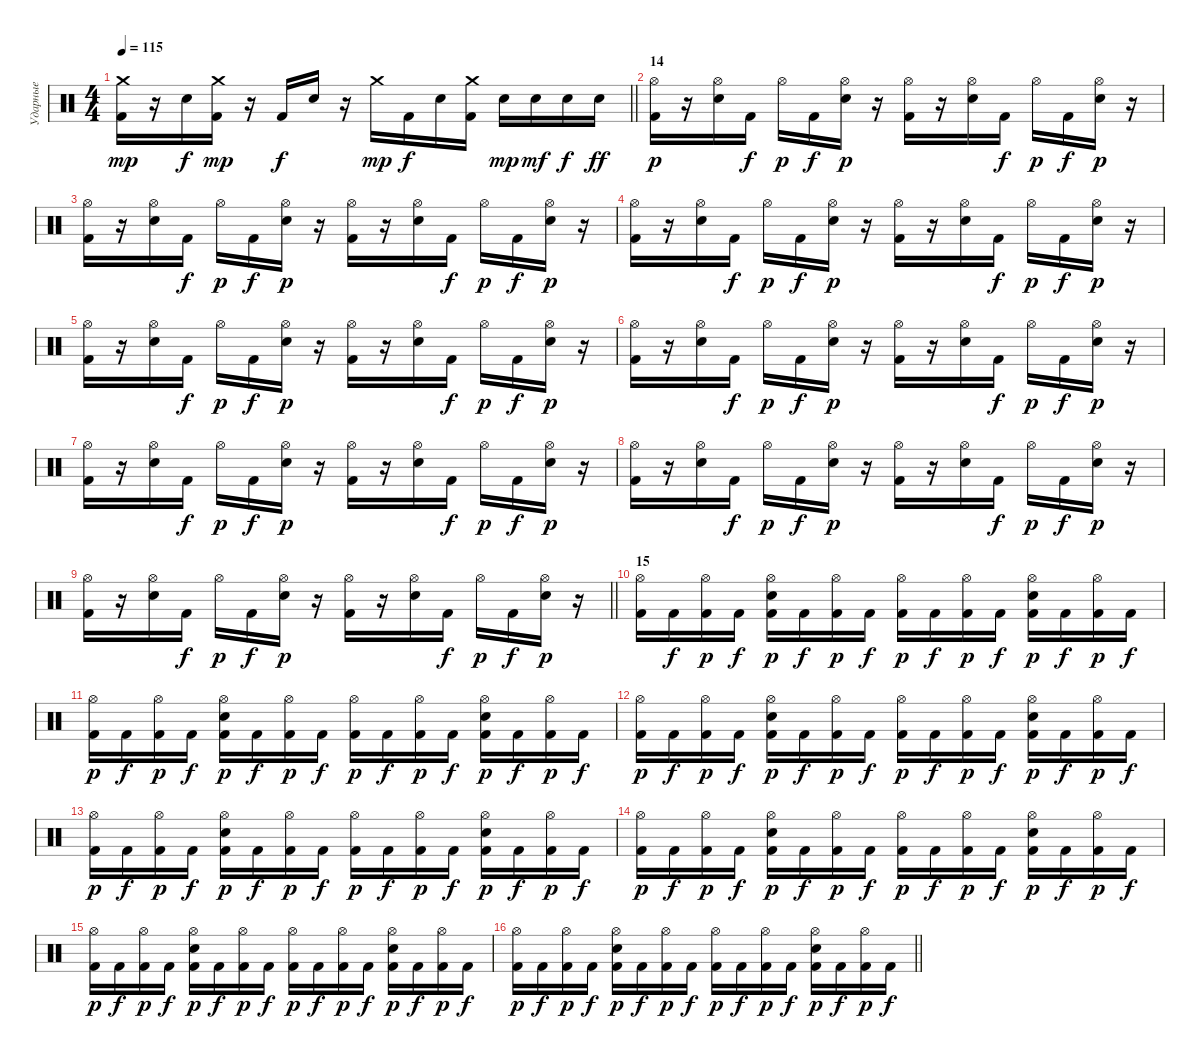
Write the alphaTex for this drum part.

\track ("Ударные" "Ударные") {instrument percussion}
\staff {score}
\articulation defaults
\ts (4 4)
\tempo 115
\clef neutral
\barLineRight lightlight
\ks c
("Crash medium (hit)" "Kick (hit) 2").16{dy mp} r.16 "Snare (hit) 2".16{dy f} ("Crash medium (hit)" "Kick (hit) 2").16{dy mp} r.16 "Kick (hit) 2".16{dy f} "Snare (hit) 2".16 r.16 "Crash medium (hit)".16{dy mp} "Kick (hit) 2".16{dy f} "Snare (hit) 2".16 ("Crash medium (hit)" "Kick (hit) 2").16 "Snare (hit) 2".16{dy mp} "Snare (hit) 2".16{dy mf} "Snare (hit) 2".16{dy f} "Snare (hit) 2".16{dy ff} |
\section ("" "14")
("Hi-Hat (open)" "Kick (hit) 2").16{dy p} r.16 ("Hi-Hat (open)" "Snare (hit) 2").16 "Kick (hit) 2".16{dy f} "Hi-Hat (open)".16{dy p} "Kick (hit) 2".16{dy f} ("Hi-Hat (open)" "Snare (hit) 2").16{dy p} r.16 ("Hi-Hat (open)" "Kick (hit) 2").16 r.16 ("Hi-Hat (open)" "Snare (hit) 2").16 "Kick (hit) 2".16{dy f} "Hi-Hat (open)".16{dy p} "Kick (hit) 2".16{dy f} ("Hi-Hat (open)" "Snare (hit) 2").16{dy p} r.16 |
("Hi-Hat (open)" "Kick (hit) 2").16 r.16 ("Hi-Hat (open)" "Snare (hit) 2").16 "Kick (hit) 2".16{dy f} "Hi-Hat (open)".16{dy p} "Kick (hit) 2".16{dy f} ("Hi-Hat (open)" "Snare (hit) 2").16{dy p} r.16 ("Hi-Hat (open)" "Kick (hit) 2").16 r.16 ("Hi-Hat (open)" "Snare (hit) 2").16 "Kick (hit) 2".16{dy f} "Hi-Hat (open)".16{dy p} "Kick (hit) 2".16{dy f} ("Hi-Hat (open)" "Snare (hit) 2").16{dy p} r.16 |
("Hi-Hat (open)" "Kick (hit) 2").16 r.16 ("Hi-Hat (open)" "Snare (hit) 2").16 "Kick (hit) 2".16{dy f} "Hi-Hat (open)".16{dy p} "Kick (hit) 2".16{dy f} ("Hi-Hat (open)" "Snare (hit) 2").16{dy p} r.16 ("Hi-Hat (open)" "Kick (hit) 2").16 r.16 ("Hi-Hat (open)" "Snare (hit) 2").16 "Kick (hit) 2".16{dy f} "Hi-Hat (open)".16{dy p} "Kick (hit) 2".16{dy f} ("Hi-Hat (open)" "Snare (hit) 2").16{dy p} r.16 |
("Hi-Hat (open)" "Kick (hit) 2").16 r.16 ("Hi-Hat (open)" "Snare (hit) 2").16 "Kick (hit) 2".16{dy f} "Hi-Hat (open)".16{dy p} "Kick (hit) 2".16{dy f} ("Hi-Hat (open)" "Snare (hit) 2").16{dy p} r.16 ("Hi-Hat (open)" "Kick (hit) 2").16 r.16 ("Hi-Hat (open)" "Snare (hit) 2").16 "Kick (hit) 2".16{dy f} "Hi-Hat (open)".16{dy p} "Kick (hit) 2".16{dy f} ("Hi-Hat (open)" "Snare (hit) 2").16{dy p} r.16 |
("Hi-Hat (open)" "Kick (hit) 2").16 r.16 ("Hi-Hat (open)" "Snare (hit) 2").16 "Kick (hit) 2".16{dy f} "Hi-Hat (open)".16{dy p} "Kick (hit) 2".16{dy f} ("Hi-Hat (open)" "Snare (hit) 2").16{dy p} r.16 ("Hi-Hat (open)" "Kick (hit) 2").16 r.16 ("Hi-Hat (open)" "Snare (hit) 2").16 "Kick (hit) 2".16{dy f} "Hi-Hat (open)".16{dy p} "Kick (hit) 2".16{dy f} ("Hi-Hat (open)" "Snare (hit) 2").16{dy p} r.16 |
("Hi-Hat (open)" "Kick (hit) 2").16 r.16 ("Hi-Hat (open)" "Snare (hit) 2").16 "Kick (hit) 2".16{dy f} "Hi-Hat (open)".16{dy p} "Kick (hit) 2".16{dy f} ("Hi-Hat (open)" "Snare (hit) 2").16{dy p} r.16 ("Hi-Hat (open)" "Kick (hit) 2").16 r.16 ("Hi-Hat (open)" "Snare (hit) 2").16 "Kick (hit) 2".16{dy f} "Hi-Hat (open)".16{dy p} "Kick (hit) 2".16{dy f} ("Hi-Hat (open)" "Snare (hit) 2").16{dy p} r.16 |
("Hi-Hat (open)" "Kick (hit) 2").16 r.16 ("Hi-Hat (open)" "Snare (hit) 2").16 "Kick (hit) 2".16{dy f} "Hi-Hat (open)".16{dy p} "Kick (hit) 2".16{dy f} ("Hi-Hat (open)" "Snare (hit) 2").16{dy p} r.16 ("Hi-Hat (open)" "Kick (hit) 2").16 r.16 ("Hi-Hat (open)" "Snare (hit) 2").16 "Kick (hit) 2".16{dy f} "Hi-Hat (open)".16{dy p} "Kick (hit) 2".16{dy f} ("Hi-Hat (open)" "Snare (hit) 2").16{dy p} r.16 |
\barLineRight lightlight
("Hi-Hat (open)" "Kick (hit) 2").16 r.16 ("Hi-Hat (open)" "Snare (hit) 2").16 "Kick (hit) 2".16{dy f} "Hi-Hat (open)".16{dy p} "Kick (hit) 2".16{dy f} ("Hi-Hat (open)" "Snare (hit) 2").16{dy p} r.16 ("Hi-Hat (open)" "Kick (hit) 2").16 r.16 ("Hi-Hat (open)" "Snare (hit) 2").16 "Kick (hit) 2".16{dy f} "Hi-Hat (open)".16{dy p} "Kick (hit) 2".16{dy f} ("Hi-Hat (open)" "Snare (hit) 2").16{dy p} r.16 |
\section ("" "15")
("Hi-Hat (open)" "Kick (hit) 2").16 "Kick (hit) 2".16{dy f} ("Hi-Hat (open)" "Kick (hit) 2").16{dy p} "Kick (hit) 2".16{dy f} ("Hi-Hat (open)" "Snare (hit) 2" "Kick (hit) 2").16{dy p} "Kick (hit) 2".16{dy f} ("Hi-Hat (open)" "Kick (hit) 2").16{dy p} "Kick (hit) 2".16{dy f} ("Hi-Hat (open)" "Kick (hit) 2").16{dy p} "Kick (hit) 2".16{dy f} ("Hi-Hat (open)" "Kick (hit) 2").16{dy p} "Kick (hit) 2".16{dy f} ("Hi-Hat (open)" "Snare (hit) 2" "Kick (hit) 2").16{dy p} "Kick (hit) 2".16{dy f} ("Hi-Hat (open)" "Kick (hit) 2").16{dy p} "Kick (hit) 2".16{dy f} |
("Hi-Hat (open)" "Kick (hit) 2").16{dy p} "Kick (hit) 2".16{dy f} ("Hi-Hat (open)" "Kick (hit) 2").16{dy p} "Kick (hit) 2".16{dy f} ("Hi-Hat (open)" "Snare (hit) 2" "Kick (hit) 2").16{dy p} "Kick (hit) 2".16{dy f} ("Hi-Hat (open)" "Kick (hit) 2").16{dy p} "Kick (hit) 2".16{dy f} ("Hi-Hat (open)" "Kick (hit) 2").16{dy p} "Kick (hit) 2".16{dy f} ("Hi-Hat (open)" "Kick (hit) 2").16{dy p} "Kick (hit) 2".16{dy f} ("Hi-Hat (open)" "Snare (hit) 2" "Kick (hit) 2").16{dy p} "Kick (hit) 2".16{dy f} ("Hi-Hat (open)" "Kick (hit) 2").16{dy p} "Kick (hit) 2".16{dy f} |
("Hi-Hat (open)" "Kick (hit) 2").16{dy p} "Kick (hit) 2".16{dy f} ("Hi-Hat (open)" "Kick (hit) 2").16{dy p} "Kick (hit) 2".16{dy f} ("Hi-Hat (open)" "Snare (hit) 2" "Kick (hit) 2").16{dy p} "Kick (hit) 2".16{dy f} ("Hi-Hat (open)" "Kick (hit) 2").16{dy p} "Kick (hit) 2".16{dy f} ("Hi-Hat (open)" "Kick (hit) 2").16{dy p} "Kick (hit) 2".16{dy f} ("Hi-Hat (open)" "Kick (hit) 2").16{dy p} "Kick (hit) 2".16{dy f} ("Hi-Hat (open)" "Snare (hit) 2" "Kick (hit) 2").16{dy p} "Kick (hit) 2".16{dy f} ("Hi-Hat (open)" "Kick (hit) 2").16{dy p} "Kick (hit) 2".16{dy f} |
("Hi-Hat (open)" "Kick (hit) 2").16{dy p} "Kick (hit) 2".16{dy f} ("Hi-Hat (open)" "Kick (hit) 2").16{dy p} "Kick (hit) 2".16{dy f} ("Hi-Hat (open)" "Snare (hit) 2" "Kick (hit) 2").16{dy p} "Kick (hit) 2".16{dy f} ("Hi-Hat (open)" "Kick (hit) 2").16{dy p} "Kick (hit) 2".16{dy f} ("Hi-Hat (open)" "Kick (hit) 2").16{dy p} "Kick (hit) 2".16{dy f} ("Hi-Hat (open)" "Kick (hit) 2").16{dy p} "Kick (hit) 2".16{dy f} ("Hi-Hat (open)" "Snare (hit) 2" "Kick (hit) 2").16{dy p} "Kick (hit) 2".16{dy f} ("Hi-Hat (open)" "Kick (hit) 2").16{dy p} "Kick (hit) 2".16{dy f} |
("Hi-Hat (open)" "Kick (hit) 2").16{dy p} "Kick (hit) 2".16{dy f} ("Hi-Hat (open)" "Kick (hit) 2").16{dy p} "Kick (hit) 2".16{dy f} ("Hi-Hat (open)" "Snare (hit) 2" "Kick (hit) 2").16{dy p} "Kick (hit) 2".16{dy f} ("Hi-Hat (open)" "Kick (hit) 2").16{dy p} "Kick (hit) 2".16{dy f} ("Hi-Hat (open)" "Kick (hit) 2").16{dy p} "Kick (hit) 2".16{dy f} ("Hi-Hat (open)" "Kick (hit) 2").16{dy p} "Kick (hit) 2".16{dy f} ("Hi-Hat (open)" "Snare (hit) 2" "Kick (hit) 2").16{dy p} "Kick (hit) 2".16{dy f} ("Hi-Hat (open)" "Kick (hit) 2").16{dy p} "Kick (hit) 2".16{dy f} |
("Hi-Hat (open)" "Kick (hit) 2").16{dy p} "Kick (hit) 2".16{dy f} ("Hi-Hat (open)" "Kick (hit) 2").16{dy p} "Kick (hit) 2".16{dy f} ("Hi-Hat (open)" "Snare (hit) 2" "Kick (hit) 2").16{dy p} "Kick (hit) 2".16{dy f} ("Hi-Hat (open)" "Kick (hit) 2").16{dy p} "Kick (hit) 2".16{dy f} ("Hi-Hat (open)" "Kick (hit) 2").16{dy p} "Kick (hit) 2".16{dy f} ("Hi-Hat (open)" "Kick (hit) 2").16{dy p} "Kick (hit) 2".16{dy f} ("Hi-Hat (open)" "Snare (hit) 2" "Kick (hit) 2").16{dy p} "Kick (hit) 2".16{dy f} ("Hi-Hat (open)" "Kick (hit) 2").16{dy p} "Kick (hit) 2".16{dy f} |
\barLineRight lightlight
("Hi-Hat (open)" "Kick (hit) 2").16{dy p} "Kick (hit) 2".16{dy f} ("Hi-Hat (open)" "Kick (hit) 2").16{dy p} "Kick (hit) 2".16{dy f} ("Hi-Hat (open)" "Snare (hit) 2" "Kick (hit) 2").16{dy p} "Kick (hit) 2".16{dy f} ("Hi-Hat (open)" "Kick (hit) 2").16{dy p} "Kick (hit) 2".16{dy f} ("Hi-Hat (open)" "Kick (hit) 2").16{dy p} "Kick (hit) 2".16{dy f} ("Hi-Hat (open)" "Kick (hit) 2").16{dy p} "Kick (hit) 2".16{dy f} ("Hi-Hat (open)" "Snare (hit) 2" "Kick (hit) 2").16{dy p} "Kick (hit) 2".16{dy f} ("Hi-Hat (open)" "Kick (hit) 2").16{dy p} "Kick (hit) 2".16{dy f}
